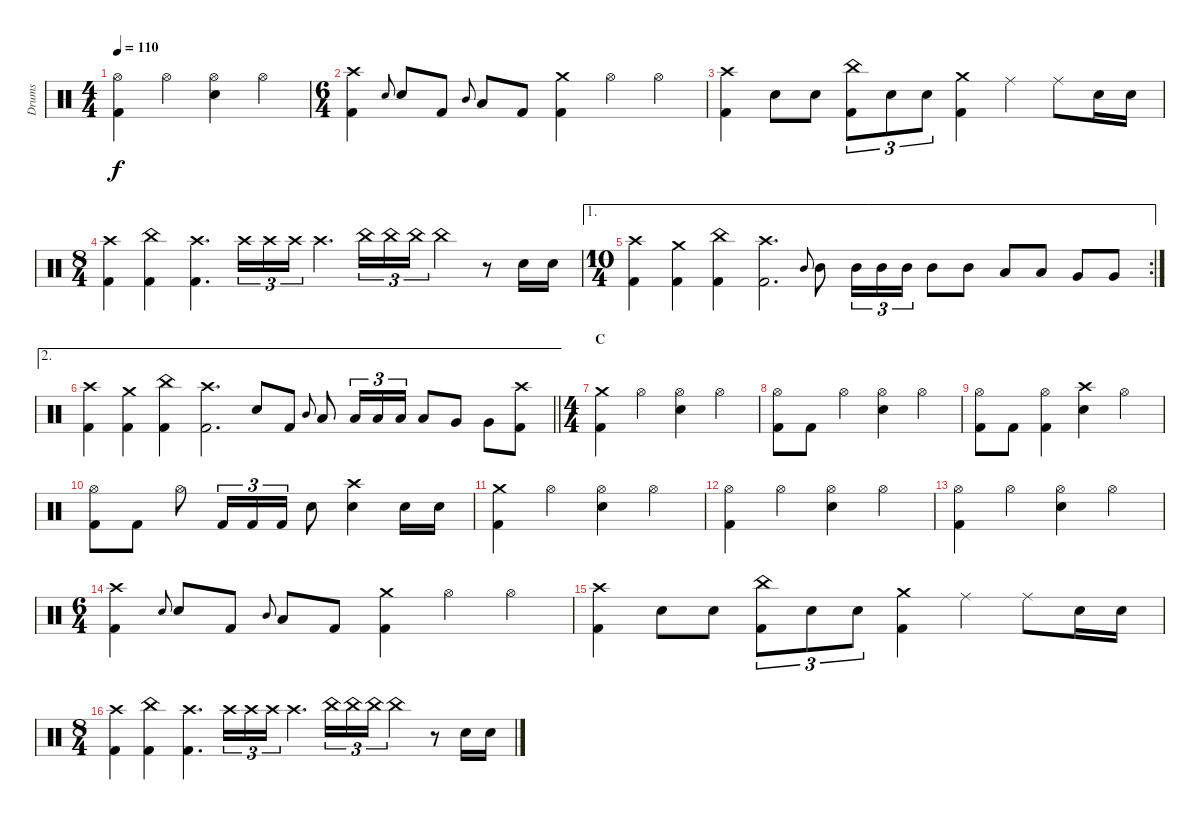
\track ("Drums" "Drums") {instrument percussion}
\staff {score}
\articulation defaults
\ts (4 4)
\tempo 110
\clef neutral
\ks c
("Hi-Hat (open)" "Kick (hit) 2").4{dy f} "Hi-Hat (open)".4 ("Hi-Hat (open)" "Snare (hit) 2").4 "Hi-Hat (open)".4 |
\ts (6 4)
("Crash high (hit)" "Kick (hit) 2").4 "Snare (hit) 2".8{gr onbeat} "Snare (hit) 2".8 "Kick (hit) 2".8 "Mid Tom (hit)".8{gr onbeat} "Low Tom (hit)".8 "Kick (hit) 2".8 ("Crash medium (hit)" "Kick (hit) 2").4 "Hi-Hat (open)".4 "Hi-Hat (open)".4 |
("Crash high (hit)" "Kick (hit) 2").4 "Snare (hit) 2".8 "Snare (hit) 2".8 ("China (hit)" "Kick (hit) 2").8{tu (3 2)} "Snare (hit) 2".8{tu (3 2)} "Snare (hit) 2".8{tu (3 2)} ("Crash medium (hit)" "Kick (hit) 2").4 "Ride (middle)".4 "Ride (middle)".8 "Snare (hit) 2".16 "Snare (hit) 2".16 |
\ts (8 4)
("Crash high (hit)" "Kick (hit) 2").4 ("China (hit)" "Kick (hit) 2").4 ("Crash high (hit)" "Kick (hit) 2").4{d} "Crash high (hit)".16{tu (3 2)} "Crash high (hit)".16{tu (3 2)} "Crash high (hit)".16{tu (3 2)} "Crash high (hit)".4{d} "China (hit)".16{tu (3 2)} "China (hit)".16{tu (3 2)} "China (hit)".16{tu (3 2)} "China (hit)".4 r.8 "Snare (hit) 2".16 "Snare (hit) 2".16 |
\ae 1
\rc 2
\ts (10 4)
("Crash high (hit)" "Kick (hit) 2").4 ("Crash medium (hit)" "Kick (hit) 2").4 ("China (hit)" "Kick (hit) 2").4 ("Crash high (hit)" "Kick (hit) 2").2{d} "Mid Tom (hit)".8{gr onbeat} "Mid Tom (hit)".8 "Mid Tom (hit)".16{tu (3 2)} "Mid Tom (hit)".16{tu (3 2)} "Mid Tom (hit)".16{tu (3 2)} "Mid Tom (hit)".8 "Mid Tom (hit)".8 "Low Tom (hit)".8 "Low Tom (hit)".8 "Very Low Tom (hit)".8 "Very Low Tom (hit)".8 |
\ae 2
\barLineRight lightlight
("Crash high (hit)" "Kick (hit) 2").4 ("Crash medium (hit)" "Kick (hit) 2").4 ("China (hit)" "Kick (hit) 2").4 ("Crash high (hit)" "Kick (hit) 2").2{d} "Snare (hit) 2".8 "Kick (hit) 2".8 "Mid Tom (hit)".8{gr onbeat} "Low Tom (hit)".8 "Low Tom (hit)".16{tu (3 2)} "Low Tom (hit)".16{tu (3 2)} "Low Tom (hit)".16{tu (3 2)} "Low Tom (hit)".8 "Very Low Tom (hit)".8 "Very Low Tom (hit)".8 ("Crash high (hit)" "Kick (hit) 2").8 |
\ts (4 4)
\section ("" "C")
("Crash medium (hit)" "Kick (hit) 2").4 "Hi-Hat (open)".4 ("Hi-Hat (open)" "Snare (hit) 2").4 "Hi-Hat (open)".4 |
("Hi-Hat (open)" "Kick (hit) 2").8 "Kick (hit) 2".8 "Hi-Hat (open)".4 ("Hi-Hat (open)" "Snare (hit) 2").4 "Hi-Hat (open)".4 |
("Hi-Hat (open)" "Kick (hit) 2").8 "Kick (hit) 2".8 ("Hi-Hat (open)" "Kick (hit) 2").4 ("Crash high (hit)" "Snare (hit) 2").4 "Hi-Hat (open)".4 |
("Hi-Hat (open)" "Kick (hit) 2").8 "Kick (hit) 2".8 "Hi-Hat (open)".8 "Kick (hit) 2".16{tu (3 2)} "Kick (hit) 2".16{tu (3 2)} "Kick (hit) 2".16{tu (3 2)} "Snare (hit) 2".8 ("Crash high (hit)" "Snare (hit) 2").4 "Snare (hit) 2".16 "Snare (hit) 2".16 |
("Crash medium (hit)" "Kick (hit) 2").4 "Hi-Hat (open)".4 ("Hi-Hat (open)" "Snare (hit) 2").4 "Hi-Hat (open)".4 |
("Hi-Hat (open)" "Kick (hit) 2").4 "Hi-Hat (open)".4 ("Hi-Hat (open)" "Snare (hit) 2").4 "Hi-Hat (open)".4 |
("Hi-Hat (open)" "Kick (hit) 2").4 "Hi-Hat (open)".4 ("Hi-Hat (open)" "Snare (hit) 2").4 "Hi-Hat (open)".4 |
\ts (6 4)
("Crash high (hit)" "Kick (hit) 2").4 "Snare (hit) 2".8{gr onbeat} "Snare (hit) 2".8 "Kick (hit) 2".8 "Mid Tom (hit)".8{gr onbeat} "Low Tom (hit)".8 "Kick (hit) 2".8 ("Crash medium (hit)" "Kick (hit) 2").4 "Hi-Hat (open)".4 "Hi-Hat (open)".4 |
("Crash high (hit)" "Kick (hit) 2").4 "Snare (hit) 2".8 "Snare (hit) 2".8 ("China (hit)" "Kick (hit) 2").8{tu (3 2)} "Snare (hit) 2".8{tu (3 2)} "Snare (hit) 2".8{tu (3 2)} ("Crash medium (hit)" "Kick (hit) 2").4 "Ride (middle)".4 "Ride (middle)".8 "Snare (hit) 2".16 "Snare (hit) 2".16 |
\ts (8 4)
("Crash high (hit)" "Kick (hit) 2").4 ("China (hit)" "Kick (hit) 2").4 ("Crash high (hit)" "Kick (hit) 2").4{d} "Crash high (hit)".16{tu (3 2)} "Crash high (hit)".16{tu (3 2)} "Crash high (hit)".16{tu (3 2)} "Crash high (hit)".4{d} "China (hit)".16{tu (3 2)} "China (hit)".16{tu (3 2)} "China (hit)".16{tu (3 2)} "China (hit)".4 r.8 "Snare (hit) 2".16 "Snare (hit) 2".16
